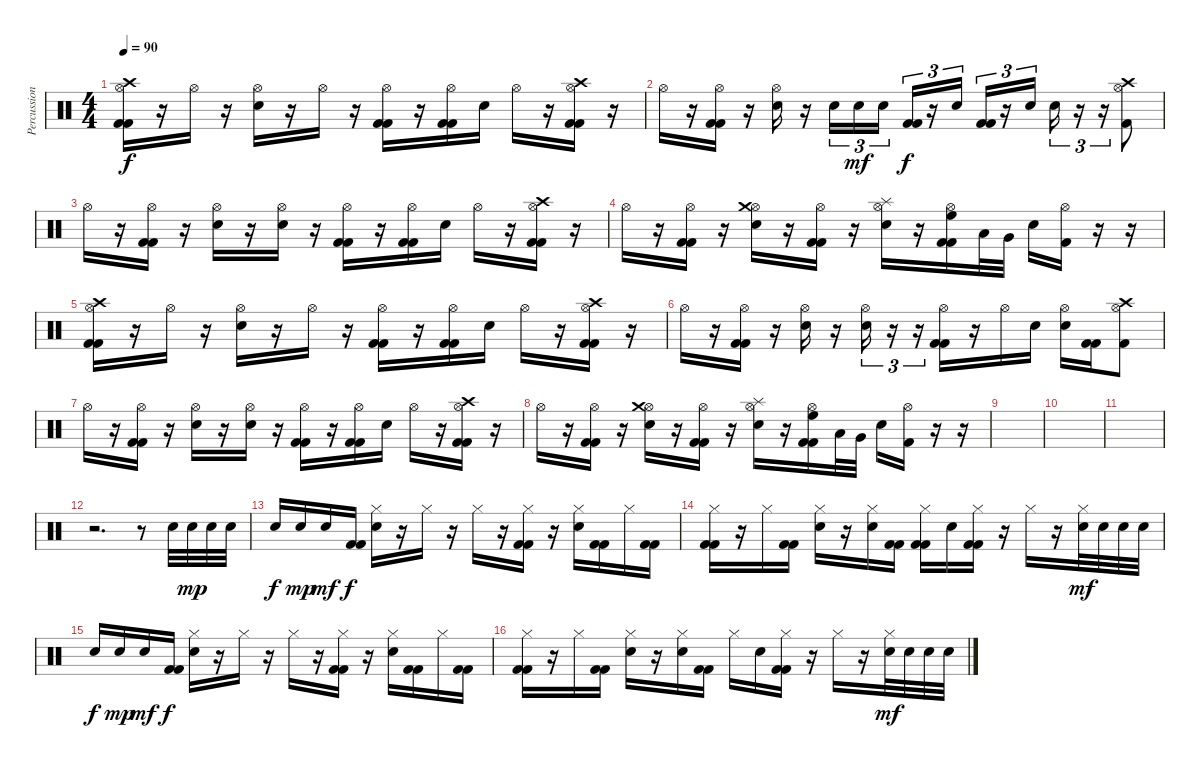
\track ("Percussion" "Percussion") {instrument percussion}
\staff {score}
\articulation defaults
\ts (4 4)
\tempo 90
\clef neutral
\ks c
("Hi-Hat (open)" "Crash high (hit)" "Kick (hit) 2" "Kick (hit) 2").16{dy f} r.16 "Hi-Hat (open)".16 r.16 ("Hi-Hat (open)" "Electric Snare (hit)").16 r.16 "Hi-Hat (open)".16 r.16 ("Hi-Hat (open)" "Kick (hit) 2" "Kick (hit) 2").16 r.16 ("Hi-Hat (open)" "Kick (hit) 2" "Kick (hit) 2").16 "Electric Snare (hit)".16 "Hi-Hat (open)".16 r.16 ("Hi-Hat (open)" "Crash high (hit)" "Kick (hit) 2" "Kick (hit) 2").16 r.16 |
"Hi-Hat (open)".16 r.16 ("Hi-Hat (open)" "Kick (hit) 2" "Kick (hit) 2").16 r.16 ("Hi-Hat (open)" "Electric Snare (hit)").16 r.16 "Electric Snare (hit)".16{tu (3 2)} "Electric Snare (hit)".16{tu (3 2) dy mf} "Electric Snare (hit)".16{tu (3 2)} ("Kick (hit) 2" "Kick (hit) 2").16{tu (3 2) dy f} r.16{tu (3 2)} "Electric Snare (hit)".16{tu (3 2)} ("Kick (hit) 2" "Kick (hit) 2").16{tu (3 2)} r.16{tu (3 2)} "Electric Snare (hit)".16{tu (3 2)} "Electric Snare (hit)".16{tu (3 2)} r.16{tu (3 2)} r.16{tu (3 2)} ("Hi-Hat (open)" "Crash high (hit)" "Kick (hit) 2").8 |
"Hi-Hat (open)".16 r.16 ("Hi-Hat (open)" "Kick (hit) 2" "Kick (hit) 2").16 r.16 ("Hi-Hat (open)" "Electric Snare (hit)").16 r.16 ("Hi-Hat (open)" "Electric Snare (hit)").16 r.16 ("Hi-Hat (open)" "Kick (hit) 2" "Kick (hit) 2").16 r.16 ("Hi-Hat (open)" "Kick (hit) 2" "Kick (hit) 2").16 "Electric Snare (hit)".16 "Hi-Hat (open)".16 r.16 ("Hi-Hat (open)" "Crash high (hit)" "Kick (hit) 2" "Kick (hit) 2").16 r.16 |
"Hi-Hat (open)".16 r.16 ("Hi-Hat (open)" "Kick (hit) 2" "Kick (hit) 2").16 r.16 ("Hi-Hat (open)" "Crash medium (hit)" "Electric Snare (hit)").16 r.16 ("Hi-Hat (open)" "Kick (hit) 2" "Kick (hit) 2").16 r.16 ("Hi-Hat (open)" "Splash (hit)" "Electric Snare (hit)").16 r.16 ("Hi-Hat (open)" "High Floor Tom (hit)" "Kick (hit) 2" "Kick (hit) 2").16 "Low Tom (hit)".32 "Very Low Tom (hit)".32 "Electric Snare (hit)".16 ("Hi-Hat (open)" "Kick (hit) 2").16 r.16 r.16 |
("Hi-Hat (open)" "Crash high (hit)" "Kick (hit) 2" "Kick (hit) 2").16 r.16 "Hi-Hat (open)".16 r.16 ("Hi-Hat (open)" "Electric Snare (hit)").16 r.16 "Hi-Hat (open)".16 r.16 ("Hi-Hat (open)" "Kick (hit) 2" "Kick (hit) 2").16 r.16 ("Hi-Hat (open)" "Kick (hit) 2" "Kick (hit) 2").16 "Electric Snare (hit)".16 "Hi-Hat (open)".16 r.16 ("Hi-Hat (open)" "Crash high (hit)" "Kick (hit) 2" "Kick (hit) 2").16 r.16 |
"Hi-Hat (open)".16 r.16 ("Hi-Hat (open)" "Kick (hit) 2" "Kick (hit) 2").16 r.16 ("Hi-Hat (open)" "Electric Snare (hit)").16 r.16 ("Hi-Hat (open)" "Electric Snare (hit)").16{tu (3 2)} r.16{tu (3 2)} r.16{tu (3 2)} ("Hi-Hat (open)" "Kick (hit) 2" "Kick (hit) 2").16 r.16 "Hi-Hat (open)".16 "Electric Snare (hit)".16 ("Hi-Hat (open)" "Electric Snare (hit)").16 ("Kick (hit) 2" "Kick (hit) 2").16 ("Hi-Hat (open)" "Crash high (hit)" "Kick (hit) 2").8 |
"Hi-Hat (open)".16 r.16 ("Hi-Hat (open)" "Kick (hit) 2" "Kick (hit) 2").16 r.16 ("Hi-Hat (open)" "Electric Snare (hit)").16 r.16 ("Hi-Hat (open)" "Electric Snare (hit)").16 r.16 ("Hi-Hat (open)" "Kick (hit) 2" "Kick (hit) 2").16 r.16 ("Hi-Hat (open)" "Kick (hit) 2" "Kick (hit) 2").16 "Electric Snare (hit)".16 "Hi-Hat (open)".16 r.16 ("Hi-Hat (open)" "Crash high (hit)" "Kick (hit) 2" "Kick (hit) 2").16 r.16 |
"Hi-Hat (open)".16 r.16 ("Hi-Hat (open)" "Kick (hit) 2" "Kick (hit) 2").16 r.16 ("Hi-Hat (open)" "Crash medium (hit)" "Electric Snare (hit)").16 r.16 ("Hi-Hat (open)" "Kick (hit) 2" "Kick (hit) 2").16 r.16 ("Hi-Hat (open)" "Splash (hit)" "Electric Snare (hit)").16 r.16 ("Hi-Hat (open)" "High Floor Tom (hit)" "Kick (hit) 2" "Kick (hit) 2").16 "Low Tom (hit)".32 "Very Low Tom (hit)".32 "Electric Snare (hit)".16 ("Hi-Hat (open)" "Kick (hit) 2").16 r.16 r.16 |
|
|
|
r.2{d} r.8 "Electric Snare (hit)".32 "Electric Snare (hit)".32{dy mp} "Electric Snare (hit)".32 "Electric Snare (hit)".32 |
"Electric Snare (hit)".16{dy f} "Electric Snare (hit)".16{dy mp} "Electric Snare (hit)".16{dy mf} ("Kick (hit) 2" "Kick (hit) 2").16{dy f} ("Hi-Hat (closed)" "Electric Snare (hit)").16 r.16 "Hi-Hat (closed)".16 r.16 "Hi-Hat (closed)".16 r.16 ("Hi-Hat (closed)" "Kick (hit) 2" "Kick (hit) 2").16 r.16 ("Hi-Hat (closed)" "Electric Snare (hit)").16 ("Kick (hit) 2" "Kick (hit) 2").16 "Hi-Hat (closed)".16 ("Kick (hit) 2" "Kick (hit) 2").16 |
("Hi-Hat (closed)" "Kick (hit) 2" "Kick (hit) 2").16 r.16 "Hi-Hat (closed)".16 ("Kick (hit) 2" "Kick (hit) 2").16 ("Hi-Hat (closed)" "Electric Snare (hit)").16 r.16 ("Hi-Hat (closed)" "Electric Snare (hit)").16 ("Kick (hit) 2" "Kick (hit) 2").16 ("Hi-Hat (closed)" "Kick (hit) 2" "Kick (hit) 2").16 "Electric Snare (hit)".16 ("Hi-Hat (closed)" "Kick (hit) 2" "Kick (hit) 2").16 r.16 "Hi-Hat (closed)".16 r.16 ("Hi-Hat (closed)" "Electric Snare (hit)").32{dy mf} "Electric Snare (hit)".32 "Electric Snare (hit)".32 "Electric Snare (hit)".32 |
"Electric Snare (hit)".16{dy f} "Electric Snare (hit)".16{dy mp} "Electric Snare (hit)".16{dy mf} ("Kick (hit) 2" "Kick (hit) 2").16{dy f} ("Hi-Hat (closed)" "Electric Snare (hit)").16 r.16 "Hi-Hat (closed)".16 r.16 "Hi-Hat (closed)".16 r.16 ("Hi-Hat (closed)" "Kick (hit) 2" "Kick (hit) 2").16 r.16 ("Hi-Hat (closed)" "Electric Snare (hit)").16 ("Kick (hit) 2" "Kick (hit) 2").16 "Hi-Hat (closed)".16 ("Kick (hit) 2" "Kick (hit) 2").16 |
("Hi-Hat (closed)" "Kick (hit) 2" "Kick (hit) 2").16 r.16 "Hi-Hat (closed)".16 ("Kick (hit) 2" "Kick (hit) 2").16 ("Hi-Hat (closed)" "Electric Snare (hit)").16 r.16 ("Hi-Hat (closed)" "Electric Snare (hit)").16 ("Kick (hit) 2" "Kick (hit) 2").16 "Hi-Hat (closed)".16 "Electric Snare (hit)".16 ("Hi-Hat (closed)" "Kick (hit) 2" "Kick (hit) 2").16 r.16 "Hi-Hat (closed)".16 r.16 ("Hi-Hat (closed)" "Electric Snare (hit)").32{dy mf} "Electric Snare (hit)".32 "Electric Snare (hit)".32 "Electric Snare (hit)".32
